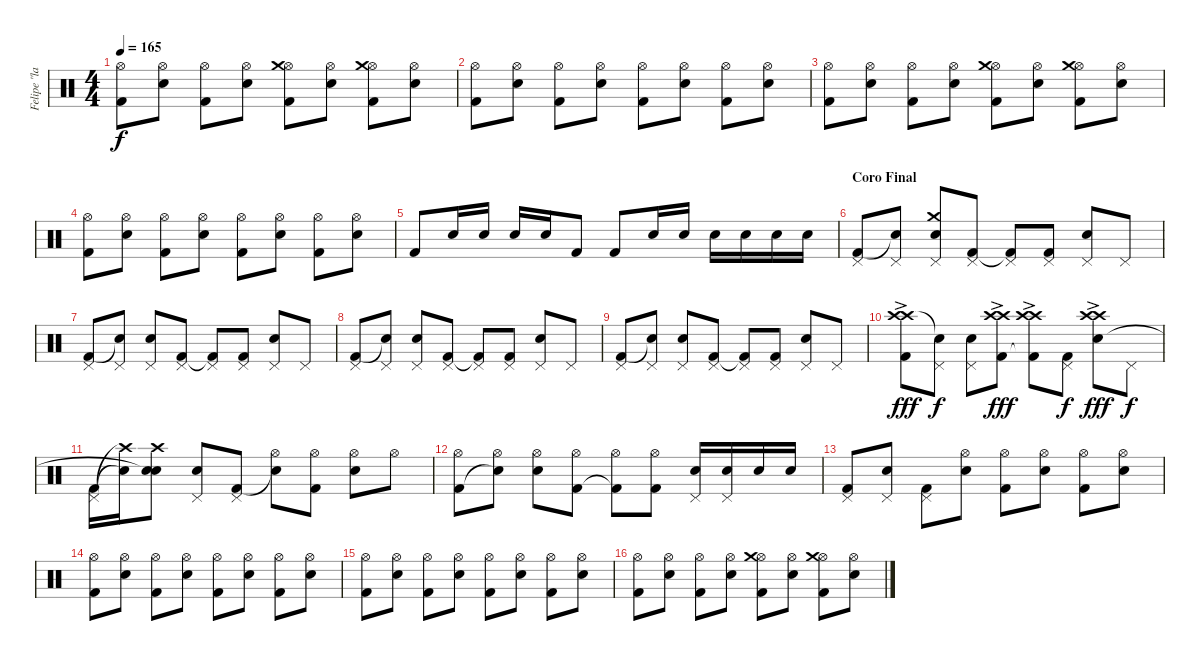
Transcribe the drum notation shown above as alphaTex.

\track ("Felipe \"la caponera\" Muñoz" "Felipe \"la") {instrument percussion}
\staff {score}
\articulation defaults
\ts (4 4)
\tempo 165
\clef neutral
\ks c
("Hi-Hat (open)" "Kick (hit) 2").8{dy f} ("Hi-Hat (open)" "Electric Snare (hit)").8 ("Hi-Hat (open)" "Kick (hit) 2").8 ("Hi-Hat (open)" "Electric Snare (hit)").8 ("Hi-Hat (open)" "Crash medium (hit)" "Kick (hit) 2").8 ("Hi-Hat (open)" "Electric Snare (hit)").8 ("Hi-Hat (open)" "Crash medium (hit)" "Kick (hit) 2").8 ("Hi-Hat (open)" "Electric Snare (hit)").8 |
("Hi-Hat (open)" "Kick (hit) 2").8 ("Hi-Hat (open)" "Electric Snare (hit)").8 ("Hi-Hat (open)" "Kick (hit) 2").8 ("Hi-Hat (open)" "Electric Snare (hit)").8 ("Hi-Hat (open)" "Kick (hit) 2").8 ("Hi-Hat (open)" "Electric Snare (hit)").8 ("Hi-Hat (open)" "Kick (hit) 2").8 ("Hi-Hat (open)" "Electric Snare (hit)").8 |
("Hi-Hat (open)" "Kick (hit) 2").8 ("Hi-Hat (open)" "Electric Snare (hit)").8 ("Hi-Hat (open)" "Kick (hit) 2").8 ("Hi-Hat (open)" "Electric Snare (hit)").8 ("Hi-Hat (open)" "Crash medium (hit)" "Kick (hit) 2").8 ("Hi-Hat (open)" "Electric Snare (hit)").8 ("Hi-Hat (open)" "Crash medium (hit)" "Kick (hit) 2").8 ("Hi-Hat (open)" "Electric Snare (hit)").8 |
("Hi-Hat (open)" "Kick (hit) 2").8 ("Hi-Hat (open)" "Electric Snare (hit)").8 ("Hi-Hat (open)" "Kick (hit) 2").8 ("Hi-Hat (open)" "Electric Snare (hit)").8 ("Hi-Hat (open)" "Kick (hit) 2").8 ("Hi-Hat (open)" "Electric Snare (hit)").8 ("Hi-Hat (open)" "Kick (hit) 2").8 ("Hi-Hat (open)" "Electric Snare (hit)").8 |
"Kick (hit) 2".8 "Electric Snare (hit)".16 "Electric Snare (hit)".16 "Electric Snare (hit)".16 "Electric Snare (hit)".16 "Kick (hit) 2".8 "Kick (hit) 2".8 "Electric Snare (hit)".16 "Electric Snare (hit)".16 "Electric Snare (hit)".16 "Electric Snare (hit)".16 "Electric Snare (hit)".16 "Electric Snare (hit)".16 |
\section ("" "Coro Final")
("Pedal Hi-Hat (hit)" "Kick (hit) 2").8 ("Pedal Hi-Hat (hit)" "Snare (hit)"{t}).8 ("Pedal Hi-Hat (hit)" "Crash medium (hit)" "Electric Snare (hit)").8 ("Pedal Hi-Hat (hit)" "Kick (hit) 2").8 ("Pedal Hi-Hat (hit)" "Kick (hit) 2"{t}).8 ("Pedal Hi-Hat (hit)" "Kick (hit) 2").8 ("Pedal Hi-Hat (hit)" "Electric Snare (hit)").8 "Pedal Hi-Hat (hit)".8 |
("Pedal Hi-Hat (hit)" "Kick (hit) 2").8 ("Pedal Hi-Hat (hit)" "Snare (hit)"{t}).8 ("Pedal Hi-Hat (hit)" "Electric Snare (hit)").8 ("Pedal Hi-Hat (hit)" "Kick (hit) 2").8 ("Pedal Hi-Hat (hit)" "Kick (hit) 2"{t}).8 ("Pedal Hi-Hat (hit)" "Kick (hit) 2").8 ("Pedal Hi-Hat (hit)" "Electric Snare (hit)").8 "Pedal Hi-Hat (hit)".8 |
("Pedal Hi-Hat (hit)" "Kick (hit) 2").8 ("Pedal Hi-Hat (hit)" "Snare (hit)"{t}).8 ("Pedal Hi-Hat (hit)" "Electric Snare (hit)").8 ("Pedal Hi-Hat (hit)" "Kick (hit) 2").8 ("Pedal Hi-Hat (hit)" "Kick (hit) 2"{t}).8 ("Pedal Hi-Hat (hit)" "Kick (hit) 2").8 ("Pedal Hi-Hat (hit)" "Electric Snare (hit)").8 "Pedal Hi-Hat (hit)".8 |
("Pedal Hi-Hat (hit)" "Kick (hit) 2").8 ("Pedal Hi-Hat (hit)" "Snare (hit)"{t}).8 ("Pedal Hi-Hat (hit)" "Electric Snare (hit)").8 ("Pedal Hi-Hat (hit)" "Kick (hit) 2").8 ("Pedal Hi-Hat (hit)" "Kick (hit) 2"{t}).8 ("Pedal Hi-Hat (hit)" "Kick (hit) 2").8 ("Pedal Hi-Hat (hit)" "Electric Snare (hit)").8 "Pedal Hi-Hat (hit)".8 |
("Crash high (hit)"{ac} "Crash high (hit)"{ac} "Kick (hit) 2").8{dy fff} ("Pedal Hi-Hat (hit)" "Snare (hit)"{t}).8{dy f} ("Pedal Hi-Hat (hit)" "Electric Snare (hit)").8 ("Crash high (hit)"{ac} "Crash high (hit)"{ac} "Kick (hit) 2").8{dy fff} ("Crash high (hit)"{ac} "Crash high (hit)"{ac} "Kick (hit) 2"{t}).8 ("Pedal Hi-Hat (hit)" "Kick (hit) 2").8{dy f} ("Crash high (hit)"{ac} "Crash high (hit)"{ac} "Electric Snare (hit)").8{dy fff} "Pedal Hi-Hat (hit)".8{dy f} |
("Pedal Hi-Hat (hit)" "Kick (hit) 2").16 ("Crash high (hit)"{t} "Snare (hit)"{t}).16 ("Crash high (hit)" "Electric Snare (hit)" "Snare (hit)"{t}).8 ("Pedal Hi-Hat (hit)" "Electric Snare (hit)").8 ("Pedal Hi-Hat (hit)" "Kick (hit) 2").8 ("Hi-Hat (open)" "Snare (hit)"{t}).8 ("Hi-Hat (open)" "Kick (hit) 2").8 ("Hi-Hat (open)" "Electric Snare (hit)").8 "Hi-Hat (open)".8 |
("Hi-Hat (open)" "Kick (hit) 2").8 ("Hi-Hat (open)" "Snare (hit)"{t}).8 ("Hi-Hat (open)" "Electric Snare (hit)").8 ("Hi-Hat (open)" "Kick (hit) 2").8 ("Hi-Hat (open)" "Kick (hit) 2"{t}).8 ("Hi-Hat (open)" "Kick (hit) 2").8 ("Pedal Hi-Hat (hit)" "Electric Snare (hit)").16 ("Pedal Hi-Hat (hit)" "Electric Snare (hit)").16 "Electric Snare (hit)".16 "Electric Snare (hit)".16 |
("Pedal Hi-Hat (hit)" "Kick (hit) 2").8 ("Pedal Hi-Hat (hit)" "Electric Snare (hit)").8 ("Pedal Hi-Hat (hit)" "Kick (hit) 2").8 ("Hi-Hat (open)" "Electric Snare (hit)").8 ("Hi-Hat (open)" "Kick (hit) 2").8 ("Hi-Hat (open)" "Electric Snare (hit)").8 ("Hi-Hat (open)" "Kick (hit) 2").8 ("Hi-Hat (open)" "Electric Snare (hit)").8 |
("Hi-Hat (open)" "Kick (hit) 2").8 ("Hi-Hat (open)" "Electric Snare (hit)").8 ("Hi-Hat (open)" "Kick (hit) 2").8 ("Hi-Hat (open)" "Electric Snare (hit)").8 ("Hi-Hat (open)" "Kick (hit) 2").8 ("Hi-Hat (open)" "Electric Snare (hit)").8 ("Hi-Hat (open)" "Kick (hit) 2").8 ("Hi-Hat (open)" "Electric Snare (hit)").8 |
("Hi-Hat (open)" "Kick (hit) 2").8 ("Hi-Hat (open)" "Electric Snare (hit)").8 ("Hi-Hat (open)" "Kick (hit) 2").8 ("Hi-Hat (open)" "Electric Snare (hit)").8 ("Hi-Hat (open)" "Kick (hit) 2").8 ("Hi-Hat (open)" "Electric Snare (hit)").8 ("Hi-Hat (open)" "Kick (hit) 2").8 ("Hi-Hat (open)" "Electric Snare (hit)").8 |
("Hi-Hat (open)" "Kick (hit) 2").8 ("Hi-Hat (open)" "Electric Snare (hit)").8 ("Hi-Hat (open)" "Kick (hit) 2").8 ("Hi-Hat (open)" "Electric Snare (hit)").8 ("Hi-Hat (open)" "Crash medium (hit)" "Kick (hit) 2").8 ("Hi-Hat (open)" "Electric Snare (hit)").8 ("Hi-Hat (open)" "Crash medium (hit)" "Kick (hit) 2").8 ("Hi-Hat (open)" "Electric Snare (hit)").8
